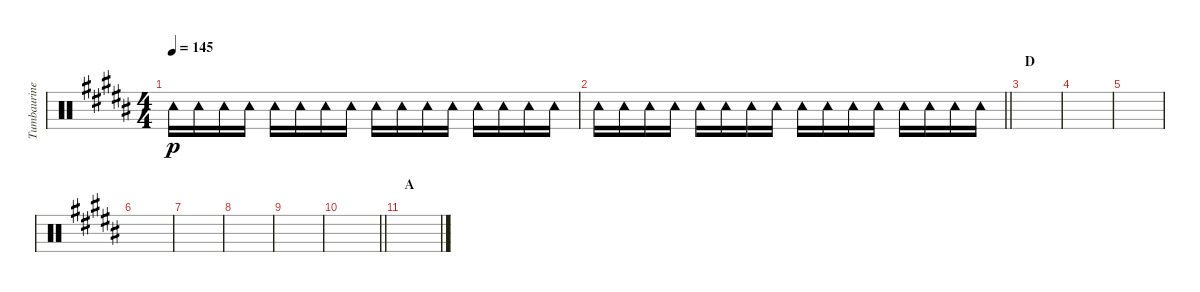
\track ("Tumbaurine" "Tumbaurine") {instrument percussion}
\staff {score}
\articulation defaults
\ts (4 4)
\tempo 145
\clef neutral
\ks b "Tambourine (hit)".16{dy p} "Tambourine (hit)".16 "Tambourine (hit)".16 "Tambourine (hit)".16 "Tambourine (hit)".16 "Tambourine (hit)".16 "Tambourine (hit)".16 "Tambourine (hit)".16 "Tambourine (hit)".16 "Tambourine (hit)".16 "Tambourine (hit)".16 "Tambourine (hit)".16 "Tambourine (hit)".16 "Tambourine (hit)".16 "Tambourine (hit)".16 "Tambourine (hit)".16
|
\barLineRight lightlight "Tambourine (hit)".16 "Tambourine (hit)".16 "Tambourine (hit)".16 "Tambourine (hit)".16 "Tambourine (hit)".16 "Tambourine (hit)".16 "Tambourine (hit)".16 "Tambourine (hit)".16 "Tambourine (hit)".16 "Tambourine (hit)".16 "Tambourine (hit)".16 "Tambourine (hit)".16 "Tambourine (hit)".16 "Tambourine (hit)".16 "Tambourine (hit)".16 "Tambourine (hit)".16
|
\section ("" "D")
|
|
|
|
|
|
|
\barLineRight lightlight
|
\section ("" "A")
